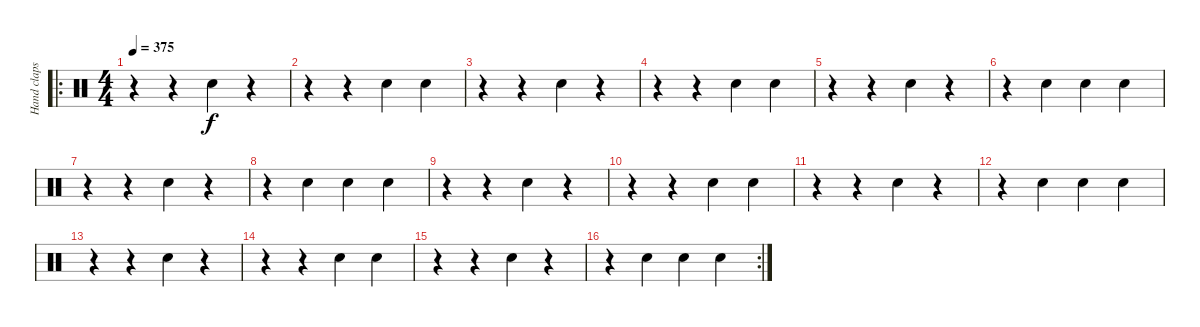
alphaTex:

\track ("Hand claps" "Hand claps") {instrument percussion}
\staff {score}
\articulation defaults
\ro
\ts (4 4)
\tempo 375
\clef neutral
\ks c
r.4{dy f} r.4 "Hand Clap (hit)".4 r.4 |
r.4 r.4 "Hand Clap (hit)".4 "Hand Clap (hit)".4 |
r.4 r.4 "Hand Clap (hit)".4 r.4 |
r.4 r.4 "Hand Clap (hit)".4 "Hand Clap (hit)".4 |
r.4 r.4 "Hand Clap (hit)".4 r.4 |
r.4 "Hand Clap (hit)".4 "Hand Clap (hit)".4 "Hand Clap (hit)".4 |
r.4 r.4 "Hand Clap (hit)".4 r.4 |
r.4 "Hand Clap (hit)".4 "Hand Clap (hit)".4 "Hand Clap (hit)".4 |
r.4 r.4 "Hand Clap (hit)".4 r.4 |
r.4 r.4 "Hand Clap (hit)".4 "Hand Clap (hit)".4 |
r.4 r.4 "Hand Clap (hit)".4 r.4 |
r.4 "Hand Clap (hit)".4 "Hand Clap (hit)".4 "Hand Clap (hit)".4 |
r.4 r.4 "Hand Clap (hit)".4 r.4 |
r.4 r.4 "Hand Clap (hit)".4 "Hand Clap (hit)".4 |
r.4 r.4 "Hand Clap (hit)".4 r.4 |
\rc 2
r.4 "Hand Clap (hit)".4 "Hand Clap (hit)".4 "Hand Clap (hit)".4
